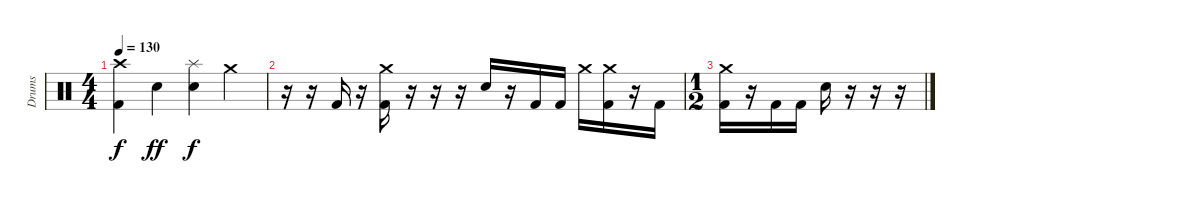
\track ("Drums" "Drums") {instrument percussion}
\staff {score}
\articulation defaults
\ts (4 4)
\tempo 130
\clef neutral
\ks c
("Crash high (hit)" "Kick (hit) 2").4{dy f} "Electric Snare (hit)".4{dy ff} ("Splash (hit)" "Electric Snare (hit)").4{dy f} "Crash medium (hit)".4 |
r.16 r.16 "Kick (hit) 2".16 r.16 ("Crash medium (hit)" "Kick (hit) 2").16 r.16 r.16 r.16 "Electric Snare (hit)".16 r.16 "Kick (hit) 2".16 "Kick (hit) 2".16 "Crash medium (hit)".16 ("Crash medium (hit)" "Kick (hit) 2").16 r.16 "Kick (hit) 2".16 |
\ts (1 2)
("Crash medium (hit)" "Kick (hit) 2").16 r.16 "Kick (hit) 2".16 "Kick (hit) 2".16 "Electric Snare (hit)".16 r.16 r.16 r.16
